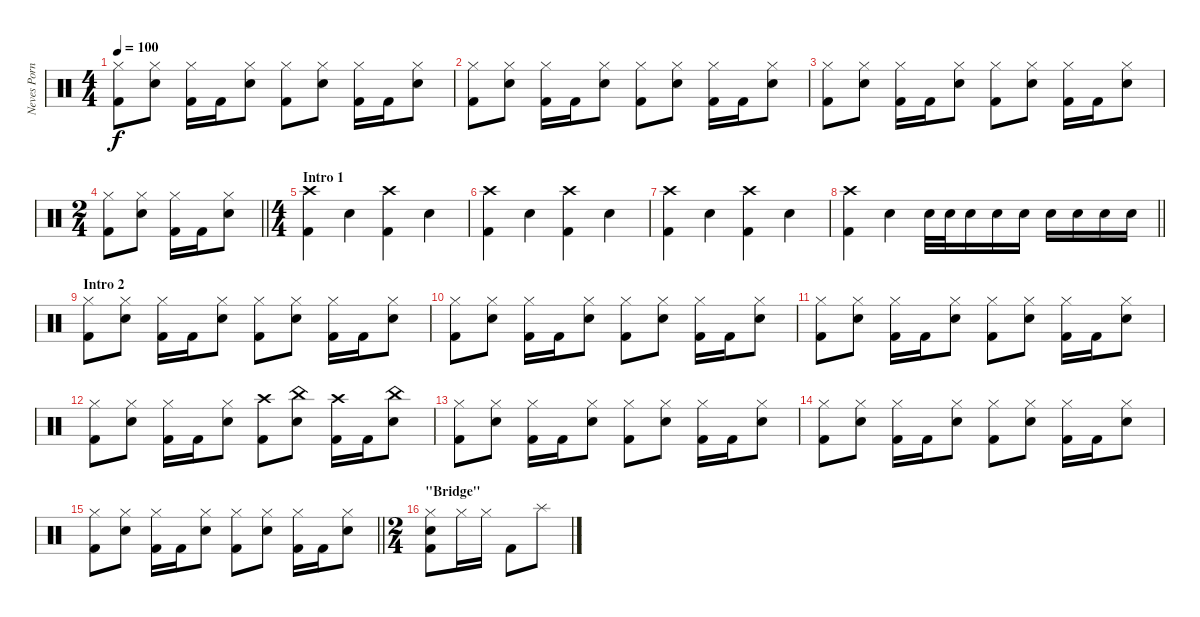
\track ("Neves Porntoy" "Neves Porn") {instrument percussion}
\staff {score}
\articulation defaults
\ts (4 4)
\tempo 100
\clef neutral
\ks c
("Kick (hit) 2" "Hi-Hat (closed)").8{dy f} ("Electric Snare (hit)" "Hi-Hat (closed)").8 ("Kick (hit) 2" "Hi-Hat (closed)").16 "Kick (hit) 2".16 ("Electric Snare (hit)" "Hi-Hat (closed)").8 ("Kick (hit) 2" "Hi-Hat (closed)").8 ("Electric Snare (hit)" "Hi-Hat (closed)").8 ("Kick (hit) 2" "Hi-Hat (closed)").16 "Kick (hit) 2".16 ("Electric Snare (hit)" "Hi-Hat (closed)").8 |
("Kick (hit) 2" "Hi-Hat (closed)").8 ("Electric Snare (hit)" "Hi-Hat (closed)").8 ("Kick (hit) 2" "Hi-Hat (closed)").16 "Kick (hit) 2".16 ("Electric Snare (hit)" "Hi-Hat (closed)").8 ("Kick (hit) 2" "Hi-Hat (closed)").8 ("Electric Snare (hit)" "Hi-Hat (closed)").8 ("Kick (hit) 2" "Hi-Hat (closed)").16 "Kick (hit) 2".16 ("Electric Snare (hit)" "Hi-Hat (closed)").8 |
("Kick (hit) 2" "Hi-Hat (closed)").8 ("Electric Snare (hit)" "Hi-Hat (closed)").8 ("Kick (hit) 2" "Hi-Hat (closed)").16 "Kick (hit) 2".16 ("Electric Snare (hit)" "Hi-Hat (closed)").8 ("Kick (hit) 2" "Hi-Hat (closed)").8 ("Electric Snare (hit)" "Hi-Hat (closed)").8 ("Kick (hit) 2" "Hi-Hat (closed)").16 "Kick (hit) 2".16 ("Electric Snare (hit)" "Hi-Hat (closed)").8 |
\ts (2 4)
\barLineRight lightlight
("Kick (hit) 2" "Hi-Hat (closed)").8 ("Electric Snare (hit)" "Hi-Hat (closed)").8 ("Kick (hit) 2" "Hi-Hat (closed)").16 "Kick (hit) 2".16 ("Electric Snare (hit)" "Hi-Hat (closed)").8 |
\ts (4 4)
\section ("" "Intro 1")
("Kick (hit) 2" "Crash high (hit)").4 "Electric Snare (hit)".4 ("Kick (hit) 2" "Crash high (hit)").4 "Electric Snare (hit)".4 |
("Kick (hit) 2" "Crash high (hit)").4 "Electric Snare (hit)".4 ("Kick (hit) 2" "Crash high (hit)").4 "Electric Snare (hit)".4 |
("Kick (hit) 2" "Crash high (hit)").4 "Electric Snare (hit)".4 ("Kick (hit) 2" "Crash high (hit)").4 "Electric Snare (hit)".4 |
\barLineRight lightlight
("Kick (hit) 2" "Crash high (hit)").4 "Electric Snare (hit)".4 "Electric Snare (hit)".32 "Electric Snare (hit)".32 "Electric Snare (hit)".16 "Electric Snare (hit)".16 "Electric Snare (hit)".16 "Electric Snare (hit)".16 "Electric Snare (hit)".16 "Electric Snare (hit)".16 "Electric Snare (hit)".16 |
\section ("" "Intro 2")
("Kick (hit) 2" "Hi-Hat (closed)").8 ("Electric Snare (hit)" "Hi-Hat (closed)").8 ("Kick (hit) 2" "Hi-Hat (closed)").16 "Kick (hit) 2".16 ("Electric Snare (hit)" "Hi-Hat (closed)").8 ("Kick (hit) 2" "Hi-Hat (closed)").8 ("Electric Snare (hit)" "Hi-Hat (closed)").8 ("Kick (hit) 2" "Hi-Hat (closed)").16 "Kick (hit) 2".16 ("Electric Snare (hit)" "Hi-Hat (closed)").8 |
("Kick (hit) 2" "Hi-Hat (closed)").8 ("Electric Snare (hit)" "Hi-Hat (closed)").8 ("Kick (hit) 2" "Hi-Hat (closed)").16 "Kick (hit) 2".16 ("Electric Snare (hit)" "Hi-Hat (closed)").8 ("Kick (hit) 2" "Hi-Hat (closed)").8 ("Electric Snare (hit)" "Hi-Hat (closed)").8 ("Kick (hit) 2" "Hi-Hat (closed)").16 "Kick (hit) 2".16 ("Electric Snare (hit)" "Hi-Hat (closed)").8 |
("Kick (hit) 2" "Hi-Hat (closed)").8 ("Electric Snare (hit)" "Hi-Hat (closed)").8 ("Kick (hit) 2" "Hi-Hat (closed)").16 "Kick (hit) 2".16 ("Electric Snare (hit)" "Hi-Hat (closed)").8 ("Kick (hit) 2" "Hi-Hat (closed)").8 ("Electric Snare (hit)" "Hi-Hat (closed)").8 ("Kick (hit) 2" "Hi-Hat (closed)").16 "Kick (hit) 2".16 ("Electric Snare (hit)" "Hi-Hat (closed)").8 |
("Kick (hit) 2" "Hi-Hat (closed)").8 ("Electric Snare (hit)" "Hi-Hat (closed)").8 ("Kick (hit) 2" "Hi-Hat (closed)").16 "Kick (hit) 2".16 ("Electric Snare (hit)" "Hi-Hat (closed)").8 ("Kick (hit) 2" "Crash high (hit)").8 ("Electric Snare (hit)" "China (hit)").8 ("Kick (hit) 2" "Crash high (hit)").16 "Kick (hit) 2".16 ("Electric Snare (hit)" "China (hit)").8 |
("Kick (hit) 2" "Hi-Hat (closed)").8 ("Electric Snare (hit)" "Hi-Hat (closed)").8 ("Kick (hit) 2" "Hi-Hat (closed)").16 "Kick (hit) 2".16 ("Electric Snare (hit)" "Hi-Hat (closed)").8 ("Kick (hit) 2" "Hi-Hat (closed)").8 ("Electric Snare (hit)" "Hi-Hat (closed)").8 ("Kick (hit) 2" "Hi-Hat (closed)").16 "Kick (hit) 2".16 ("Electric Snare (hit)" "Hi-Hat (closed)").8 |
("Kick (hit) 2" "Hi-Hat (closed)").8 ("Electric Snare (hit)" "Hi-Hat (closed)").8 ("Kick (hit) 2" "Hi-Hat (closed)").16 "Kick (hit) 2".16 ("Electric Snare (hit)" "Hi-Hat (closed)").8 ("Kick (hit) 2" "Hi-Hat (closed)").8 ("Electric Snare (hit)" "Hi-Hat (closed)").8 ("Kick (hit) 2" "Hi-Hat (closed)").16 "Kick (hit) 2".16 ("Electric Snare (hit)" "Hi-Hat (closed)").8 |
\barLineRight lightlight
("Kick (hit) 2" "Hi-Hat (closed)").8 ("Electric Snare (hit)" "Hi-Hat (closed)").8 ("Kick (hit) 2" "Hi-Hat (closed)").16 "Kick (hit) 2".16 ("Electric Snare (hit)" "Hi-Hat (closed)").8 ("Kick (hit) 2" "Hi-Hat (closed)").8 ("Electric Snare (hit)" "Hi-Hat (closed)").8 ("Kick (hit) 2" "Hi-Hat (closed)").16 "Kick (hit) 2".16 ("Electric Snare (hit)" "Hi-Hat (closed)").8 |
\ts (2 4)
\section ("" "\"Bridge\"")
("Electric Snare (hit)" "Kick (hit) 2" "Hi-Hat (closed)").8 "Hi-Hat (closed)".16 "Hi-Hat (closed)".16 "Kick (hit) 2".8 "Splash (hit)".8
